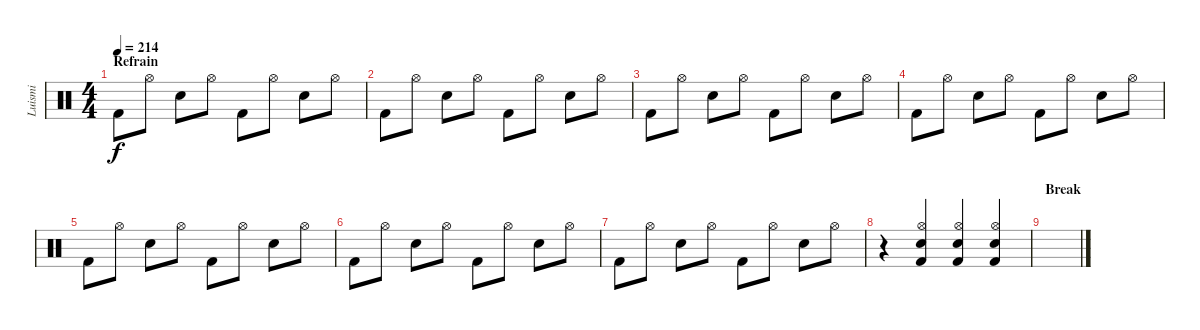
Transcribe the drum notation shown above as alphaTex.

\track ("Luismi" "Luismi") {instrument percussion}
\staff {score}
\articulation defaults
\ts (4 4)
\section ("" "Refrain")
\tempo 214
\clef neutral
\ks c "Kick (hit) 2".8{dy f} "Hi-Hat (open)".8 "Snare (hit) 2".8 "Hi-Hat (open)".8 "Kick (hit) 2".8 "Hi-Hat (open)".8 "Snare (hit) 2".8 "Hi-Hat (open)".8
|
"Kick (hit) 2".8 "Hi-Hat (open)".8 "Snare (hit) 2".8 "Hi-Hat (open)".8 "Kick (hit) 2".8 "Hi-Hat (open)".8 "Snare (hit) 2".8 "Hi-Hat (open)".8 |
"Kick (hit) 2".8 "Hi-Hat (open)".8 "Snare (hit) 2".8 "Hi-Hat (open)".8 "Kick (hit) 2".8 "Hi-Hat (open)".8 "Snare (hit) 2".8 "Hi-Hat (open)".8 |
"Kick (hit) 2".8 "Hi-Hat (open)".8 "Snare (hit) 2".8 "Hi-Hat (open)".8 "Kick (hit) 2".8 "Hi-Hat (open)".8 "Snare (hit) 2".8 "Hi-Hat (open)".8 |
"Kick (hit) 2".8 "Hi-Hat (open)".8 "Snare (hit) 2".8 "Hi-Hat (open)".8 "Kick (hit) 2".8 "Hi-Hat (open)".8 "Snare (hit) 2".8 "Hi-Hat (open)".8 |
"Kick (hit) 2".8 "Hi-Hat (open)".8 "Snare (hit) 2".8 "Hi-Hat (open)".8 "Kick (hit) 2".8 "Hi-Hat (open)".8 "Snare (hit) 2".8 "Hi-Hat (open)".8 |
"Kick (hit) 2".8 "Hi-Hat (open)".8 "Snare (hit) 2".8 "Hi-Hat (open)".8 "Kick (hit) 2".8 "Hi-Hat (open)".8 "Snare (hit) 2".8 "Hi-Hat (open)".8 |
r.4 ("Hi-Hat (open)" "Snare (hit) 2" "Kick (hit) 2").4 ("Hi-Hat (open)" "Snare (hit) 2" "Kick (hit) 2").4 ("Hi-Hat (open)" "Snare (hit) 2" "Kick (hit) 2").4 |
\section ("" "Break")
